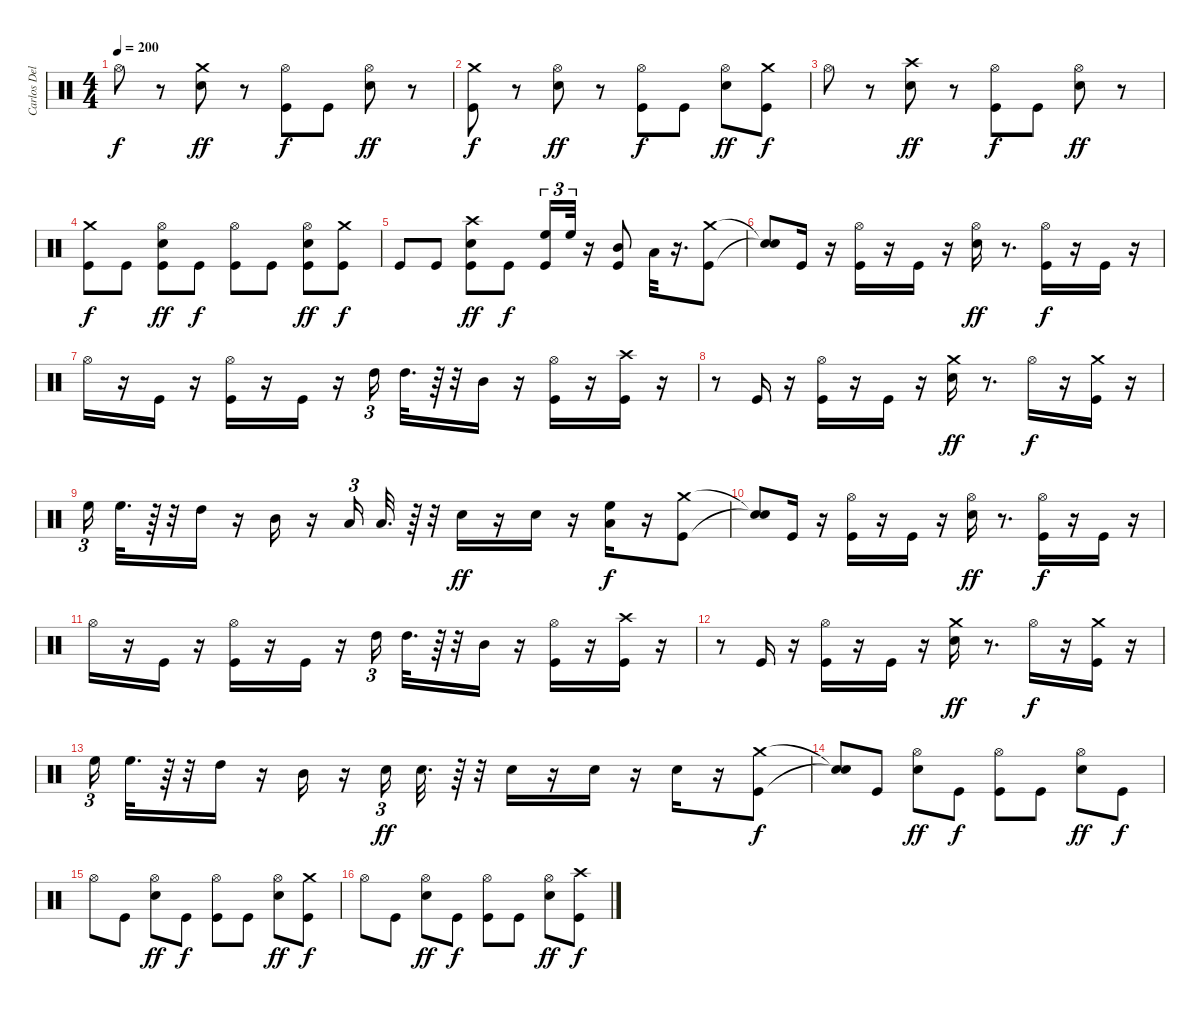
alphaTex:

\track ("Carlos Delgado" "Carlos Del") {instrument percussion}
\staff {score}
\articulation defaults
\ts (4 4)
\tempo 200
\clef neutral
\ks c "Hi-Hat (open)".8{dy f}
r.8 ("Crash medium (hit)" "Electric Snare (hit)").8{dy ff} r.8 ("Kick (hit)" "Hi-Hat (open)").8{dy f} "Kick (hit)".8 ("Hi-Hat (open)" "Electric Snare (hit)").8{dy ff} r.8 |
("Crash medium (hit)" "Kick (hit)").8{dy f} r.8 ("Electric Snare (hit)" "Hi-Hat (open)").8{dy ff} r.8 ("Hi-Hat (open)" "Kick (hit)").8{dy f} "Kick (hit)".8 ("Hi-Hat (open)" "Electric Snare (hit)").8{dy ff} ("Crash medium (hit)" "Kick (hit)").8{dy f} |
"Hi-Hat (open)".8 r.8 ("Crash high (hit)" "Electric Snare (hit)").8{dy ff} r.8 ("Hi-Hat (open)" "Kick (hit)").8{dy f} "Kick (hit)".8 ("Electric Snare (hit)" "Hi-Hat (open)").8{dy ff} r.8 |
("Kick (hit)" "Crash medium (hit)").8{dy f} "Kick (hit)".8 ("Kick (hit)" "Electric Snare (hit)" "Hi-Hat (open)").8{dy ff} "Kick (hit)".8{dy f} ("Hi-Hat (open)" "Kick (hit)").8 "Kick (hit)".8 ("Kick (hit)" "Electric Snare (hit)" "Hi-Hat (open)").8{dy ff} ("Kick (hit)" "Crash medium (hit)").8{dy f} |
"Kick (hit)".8 "Kick (hit)".8 ("Electric Snare (hit)" "Crash high (hit)" "Kick (hit)").8{dy ff} "Kick (hit)".8{dy f} ("High Floor Tom (hit)" "Kick (hit)").16{tu (3 2)} "High Floor Tom (hit)".32{tu (3 2)} r.16 ("Kick (hit)" "Mid Tom (hit)").8 "Low Tom (hit)".32 r.16{d} ("Crash medium (hit)" "Kick (hit)").8 |
("Snare (hit)"{t} "Snare (hit)"{t}).8 "Kick (hit)".16 r.16 ("Kick (hit)" "Hi-Hat (open)").16 r.16 "Kick (hit)".16 r.16 ("Electric Snare (hit)" "Hi-Hat (open)").16{dy ff} r.8{d} ("Hi-Hat (open)" "Kick (hit)").16{dy f} r.16 "Kick (hit)".16 r.16 |
"Hi-Hat (open)".16 r.16 "Kick (hit)".16 r.16 ("Hi-Hat (open)" "Kick (hit)").16 r.16 "Kick (hit)".16 r.16 "High Tom (hit)".16{tu (3 2)} "High Tom (hit)".32{d} r.64 r.32 "Mid Tom (hit)".16 r.16 ("Hi-Hat (open)" "Kick (hit)").16 r.16 ("Crash high (hit)" "Kick (hit)").16 r.16 |
r.8 "Kick (hit)".16 r.16 ("Hi-Hat (open)" "Kick (hit)").16 r.16 "Kick (hit)".16 r.16 ("Crash medium (hit)" "Electric Snare (hit)").16{dy ff} r.8{d} "Hi-Hat (open)".16{dy f} r.16 ("Kick (hit)" "Crash medium (hit)").16 r.16 |
"High Floor Tom (hit)".16{tu (3 2)} "High Floor Tom (hit)".32{d} r.64 r.32 "High Tom (hit)".16 r.16 "Mid Tom (hit)".16 r.16 "Low Tom (hit)".16{tu (3 2)} "Low Tom (hit)".32{d} r.64 r.32 "Electric Snare (hit)".16{dy ff} r.16 "Electric Snare (hit)".16 r.16 ("High Floor Tom (hit)" "Low Tom (hit)").16{dy f} r.16 ("Crash medium (hit)" "Kick (hit)").8 |
("Snare (hit)"{t} "Snare (hit)"{t}).8 "Kick (hit)".16 r.16 ("Kick (hit)" "Hi-Hat (open)").16 r.16 "Kick (hit)".16 r.16 ("Hi-Hat (open)" "Electric Snare (hit)").16{dy ff} r.8{d} ("Kick (hit)" "Hi-Hat (open)").16{dy f} r.16 "Kick (hit)".16 r.16 |
"Hi-Hat (open)".16 r.16 "Kick (hit)".16 r.16 ("Hi-Hat (open)" "Kick (hit)").16 r.16 "Kick (hit)".16 r.16 "High Tom (hit)".16{tu (3 2)} "High Tom (hit)".32{d} r.64 r.32 "Mid Tom (hit)".16 r.16 ("Hi-Hat (open)" "Kick (hit)").16 r.16 ("Crash high (hit)" "Kick (hit)").16 r.16 |
r.8 "Kick (hit)".16 r.16 ("Hi-Hat (open)" "Kick (hit)").16 r.16 "Kick (hit)".16 r.16 ("Crash medium (hit)" "Electric Snare (hit)").16{dy ff} r.8{d} "Hi-Hat (open)".16{dy f} r.16 ("Crash medium (hit)" "Kick (hit)").16 r.16 |
"High Floor Tom (hit)".16{tu (3 2)} "High Floor Tom (hit)".32{d} r.64 r.32 "High Tom (hit)".16 r.16 "Mid Tom (hit)".16 r.16 "Electric Snare (hit)".16{tu (3 2) dy ff} "Electric Snare (hit)".32{d} r.64 r.32 "Electric Snare (hit)".16 r.16 "Electric Snare (hit)".16 r.16 "Electric Snare (hit)".16 r.16 ("Kick (hit)" "Crash medium (hit)").8{dy f} |
("Snare (hit)"{t} "Snare (hit)"{t}).8 "Kick (hit)".8 ("Hi-Hat (open)" "Electric Snare (hit)").8{dy ff} "Kick (hit)".8{dy f} ("Kick (hit)" "Hi-Hat (open)").8 "Kick (hit)".8 ("Electric Snare (hit)" "Hi-Hat (open)").8{dy ff} "Kick (hit)".8{dy f} |
"Hi-Hat (open)".8 "Kick (hit)".8 ("Hi-Hat (open)" "Electric Snare (hit)").8{dy ff} "Kick (hit)".8{dy f} ("Hi-Hat (open)" "Kick (hit)").8 "Kick (hit)".8 ("Electric Snare (hit)" "Hi-Hat (open)").8{dy ff} ("Kick (hit)" "Crash medium (hit)").8{dy f} |
"Hi-Hat (open)".8 "Kick (hit)".8 ("Hi-Hat (open)" "Electric Snare (hit)").8{dy ff} "Kick (hit)".8{dy f} ("Hi-Hat (open)" "Kick (hit)").8 "Kick (hit)".8 ("Electric Snare (hit)" "Hi-Hat (open)").8{dy ff} ("Crash high (hit)" "Kick (hit)").8{dy f}
